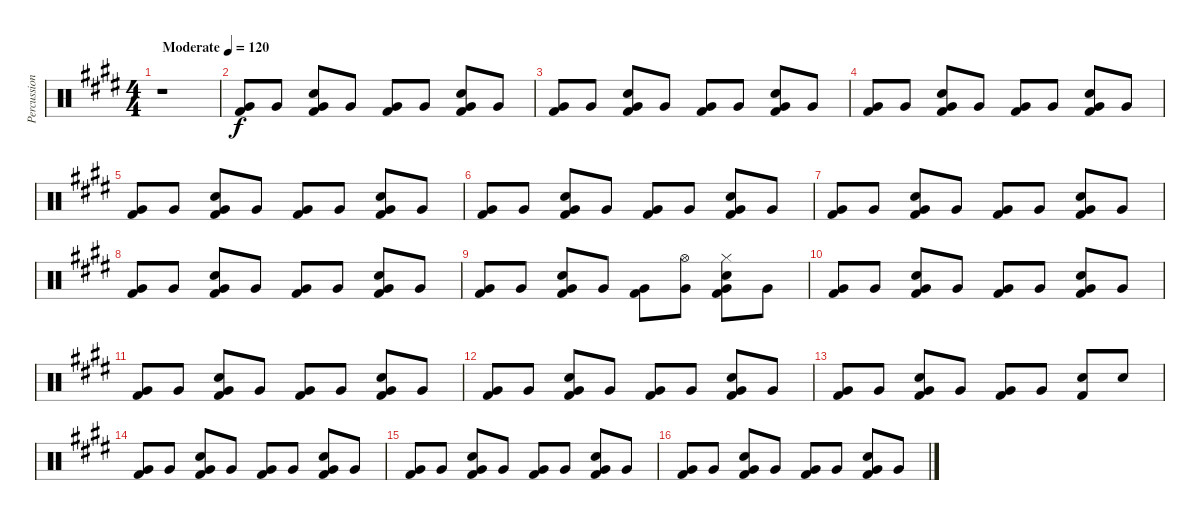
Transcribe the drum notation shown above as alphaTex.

\track ("Percussion" "Percussion") {instrument percussion}
\staff {score}
\articulation defaults
\ts (4 4)
\tempo (120 "Moderate")
\clef neutral
\ks e
r.1{dy f} |
("Very Low Tom (hit)" "Kick (hit) 2").8 "Very Low Tom (hit)".8 ("Snare (hit) 2" "Very Low Tom (hit)" "Kick (hit) 2").8 "Very Low Tom (hit)".8 ("Very Low Tom (hit)" "Kick (hit) 2").8 "Very Low Tom (hit)".8 ("Snare (hit) 2" "Very Low Tom (hit)" "Kick (hit) 2").8 "Very Low Tom (hit)".8 |
("Very Low Tom (hit)" "Kick (hit) 2").8 "Very Low Tom (hit)".8 ("Snare (hit) 2" "Very Low Tom (hit)" "Kick (hit) 2").8 "Very Low Tom (hit)".8 ("Very Low Tom (hit)" "Kick (hit) 2").8 "Very Low Tom (hit)".8 ("Snare (hit) 2" "Very Low Tom (hit)" "Kick (hit) 2").8 "Very Low Tom (hit)".8 |
("Very Low Tom (hit)" "Kick (hit) 2").8 "Very Low Tom (hit)".8 ("Snare (hit) 2" "Very Low Tom (hit)" "Kick (hit) 2").8 "Very Low Tom (hit)".8 ("Very Low Tom (hit)" "Kick (hit) 2").8 "Very Low Tom (hit)".8 ("Snare (hit) 2" "Very Low Tom (hit)" "Kick (hit) 2").8 "Very Low Tom (hit)".8 |
("Very Low Tom (hit)" "Kick (hit) 2").8 "Very Low Tom (hit)".8 ("Snare (hit) 2" "Very Low Tom (hit)" "Kick (hit) 2").8 "Very Low Tom (hit)".8 ("Very Low Tom (hit)" "Kick (hit) 2").8 "Very Low Tom (hit)".8 ("Snare (hit) 2" "Very Low Tom (hit)" "Kick (hit) 2").8 "Very Low Tom (hit)".8 |
("Very Low Tom (hit)" "Kick (hit) 2").8 "Very Low Tom (hit)".8 ("Snare (hit) 2" "Very Low Tom (hit)" "Kick (hit) 2").8 "Very Low Tom (hit)".8 ("Very Low Tom (hit)" "Kick (hit) 2").8 "Very Low Tom (hit)".8 ("Snare (hit) 2" "Very Low Tom (hit)" "Kick (hit) 2").8 "Very Low Tom (hit)".8 |
("Very Low Tom (hit)" "Kick (hit) 2").8 "Very Low Tom (hit)".8 ("Snare (hit) 2" "Very Low Tom (hit)" "Kick (hit) 2").8 "Very Low Tom (hit)".8 ("Very Low Tom (hit)" "Kick (hit) 2").8 "Very Low Tom (hit)".8 ("Snare (hit) 2" "Very Low Tom (hit)" "Kick (hit) 2").8 "Very Low Tom (hit)".8 |
("Very Low Tom (hit)" "Kick (hit) 2").8 "Very Low Tom (hit)".8 ("Snare (hit) 2" "Very Low Tom (hit)" "Kick (hit) 2").8 "Very Low Tom (hit)".8 ("Very Low Tom (hit)" "Kick (hit) 2").8 "Very Low Tom (hit)".8 ("Snare (hit) 2" "Very Low Tom (hit)" "Kick (hit) 2").8 "Very Low Tom (hit)".8 |
("Very Low Tom (hit)" "Kick (hit) 2").8 "Very Low Tom (hit)".8 ("Snare (hit) 2" "Very Low Tom (hit)" "Kick (hit) 2").8 "Very Low Tom (hit)".8 ("Very Low Tom (hit)" "Kick (hit) 2").8 ("Hi-Hat (open)" "Very Low Tom (hit)").8 ("Hi-Hat (closed)" "Snare (hit) 2" "Very Low Tom (hit)" "Kick (hit) 2").8 "Very Low Tom (hit)".8 |
("Very Low Tom (hit)" "Kick (hit) 2").8 "Very Low Tom (hit)".8 ("Snare (hit) 2" "Very Low Tom (hit)" "Kick (hit) 2").8 "Very Low Tom (hit)".8 ("Very Low Tom (hit)" "Kick (hit) 2").8 "Very Low Tom (hit)".8 ("Snare (hit) 2" "Very Low Tom (hit)" "Kick (hit) 2").8 "Very Low Tom (hit)".8 |
("Very Low Tom (hit)" "Kick (hit) 2").8 "Very Low Tom (hit)".8 ("Snare (hit) 2" "Very Low Tom (hit)" "Kick (hit) 2").8 "Very Low Tom (hit)".8 ("Very Low Tom (hit)" "Kick (hit) 2").8 "Very Low Tom (hit)".8 ("Snare (hit) 2" "Very Low Tom (hit)" "Kick (hit) 2").8 "Very Low Tom (hit)".8 |
("Very Low Tom (hit)" "Kick (hit) 2").8 "Very Low Tom (hit)".8 ("Snare (hit) 2" "Very Low Tom (hit)" "Kick (hit) 2").8 "Very Low Tom (hit)".8 ("Very Low Tom (hit)" "Kick (hit) 2").8 "Very Low Tom (hit)".8 ("Snare (hit) 2" "Very Low Tom (hit)" "Kick (hit) 2").8 "Very Low Tom (hit)".8 |
("Very Low Tom (hit)" "Kick (hit) 2").8 "Very Low Tom (hit)".8 ("Snare (hit) 2" "Very Low Tom (hit)" "Kick (hit) 2").8 "Very Low Tom (hit)".8 ("Very Low Tom (hit)" "Kick (hit) 2").8 "Very Low Tom (hit)".8 ("Snare (hit) 2" "Kick (hit) 2").8 "Snare (hit) 2".8 |
("Very Low Tom (hit)" "Kick (hit) 2").8 "Very Low Tom (hit)".8 ("Snare (hit) 2" "Very Low Tom (hit)" "Kick (hit) 2").8 "Very Low Tom (hit)".8 ("Very Low Tom (hit)" "Kick (hit) 2").8 "Very Low Tom (hit)".8 ("Snare (hit) 2" "Very Low Tom (hit)" "Kick (hit) 2").8 "Very Low Tom (hit)".8 |
("Very Low Tom (hit)" "Kick (hit) 2").8 "Very Low Tom (hit)".8 ("Snare (hit) 2" "Very Low Tom (hit)" "Kick (hit) 2").8 "Very Low Tom (hit)".8 ("Very Low Tom (hit)" "Kick (hit) 2").8 "Very Low Tom (hit)".8 ("Snare (hit) 2" "Very Low Tom (hit)" "Kick (hit) 2").8 "Very Low Tom (hit)".8 |
("Very Low Tom (hit)" "Kick (hit) 2").8 "Very Low Tom (hit)".8 ("Snare (hit) 2" "Very Low Tom (hit)" "Kick (hit) 2").8 "Very Low Tom (hit)".8 ("Very Low Tom (hit)" "Kick (hit) 2").8 "Very Low Tom (hit)".8 ("Snare (hit) 2" "Very Low Tom (hit)" "Kick (hit) 2").8 "Very Low Tom (hit)".8
